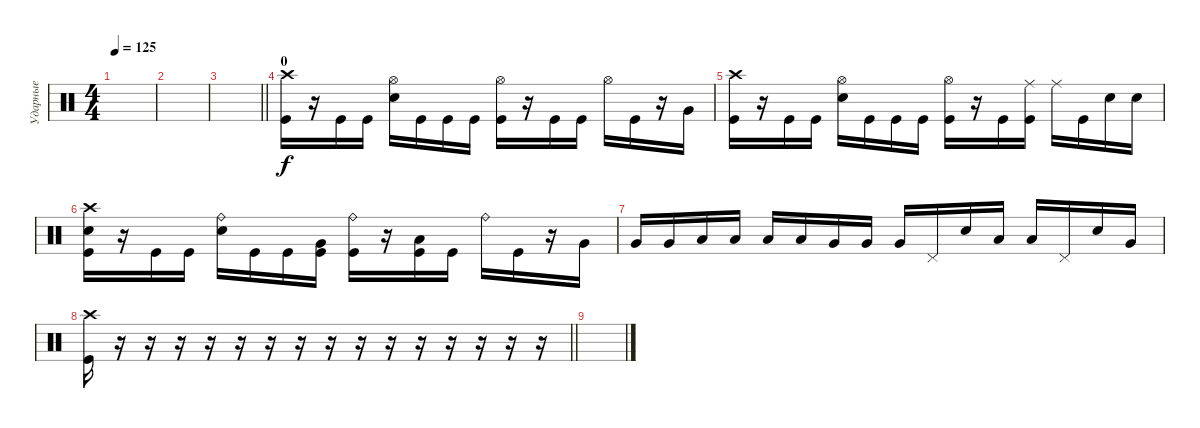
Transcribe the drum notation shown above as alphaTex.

\track ("Ударные" "Ударные") {instrument percussion}
\staff {score}
\articulation defaults
\ts (4 4)
\tempo 125
\clef neutral
\ks c
|
|
\barLineRight lightlight
|
\section ("" "0")
("Crash high (hit)" "Kick (hit)").16 r.16 "Kick (hit)".16 "Kick (hit)".16 ("Hi-Hat (open)" "Electric Snare (hit)").16 "Kick (hit)".16 "Kick (hit)".16 "Kick (hit)".16 ("Hi-Hat (open)" "Kick (hit)").16 r.16 "Kick (hit)".16 "Kick (hit)".16 "Hi-Hat (open)".16 "Kick (hit)".16 r.16 "Very Low Tom (hit)".16 |
("Crash high (hit)" "Kick (hit)").16 r.16 "Kick (hit)".16 "Kick (hit)".16 ("Hi-Hat (open)" "Electric Snare (hit)").16 "Kick (hit)".16 "Kick (hit)".16 "Kick (hit)".16 ("Hi-Hat (open)" "Kick (hit)").16 r.16 "Kick (hit)".16 ("Ride (middle)" "Kick (hit)").16 "Ride (middle)".16 "Kick (hit)".16 "Electric Snare (hit)".16 "Electric Snare (hit)".16 |
("Crash high (hit)" "Electric Snare (hit)" "Kick (hit)").16 r.16 "Kick (hit)".16 "Kick (hit)".16 ("Ride (bell)" "Electric Snare (hit)").16 "Kick (hit)".16 "Kick (hit)".16 ("Very Low Tom (hit)" "Kick (hit)").16 ("Ride (bell)" "Kick (hit)").16 r.16 ("Low Tom (hit)" "Kick (hit)").16 "Kick (hit)".16 "Ride (bell)".16 "Kick (hit)".16 r.16 "Very Low Tom (hit)".16 |
"Very Low Tom (hit)".16 "Very Low Tom (hit)".16 "Low Floor Tom (hit)".16 "Low Floor Tom (hit)".16 "Low Tom (hit)".16 "Low Tom (hit)".16 "Very Low Tom (hit)".16 "Very Low Tom (hit)".16 "Very Low Tom (hit)".16 "Pedal Hi-Hat (hit)".16 "Electric Snare (hit)".16 "Low Floor Tom (hit)".16 "Low Tom (hit)".16 "Pedal Hi-Hat (hit)".16 "Electric Snare (hit)".16 "Very Low Tom (hit)".16 |
\barLineRight lightlight
("Crash high (hit)" "Kick (hit)").16 r.16 r.16 r.16 r.16 r.16 r.16 r.16 r.16 r.16 r.16 r.16 r.16 r.16 r.16 r.16 |
\section ("" " ")
